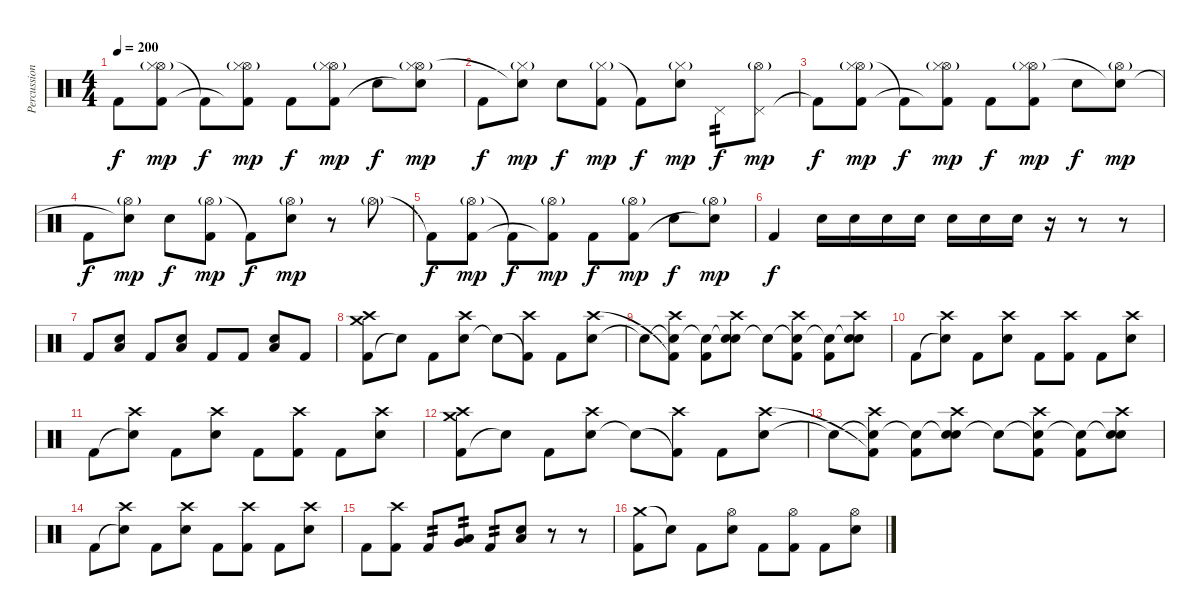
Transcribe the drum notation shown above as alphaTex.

\track ("Percussion" "Percussion") {instrument percussion}
\staff {score}
\articulation defaults
\ts (4 4)
\tempo 200
\clef neutral
\ks c "Kick (hit) 2"{t}.8{dy f}
("Hi-Hat (open)"{g} "Hi-Hat (closed)" "Kick (hit) 2").8{dy mp} "Kick (hit) 2"{t}.8{dy f} ("Hi-Hat (open)"{g} "Hi-Hat (closed)"{g} "Kick (hit) 2"{t}).8{dy mp} "Kick (hit) 2".8{dy f} ("Hi-Hat (open)"{g} "Hi-Hat (closed)"{g} "Kick (hit) 2").8{dy mp} "Snare (hit) 2".8{dy f} ("Hi-Hat (open)"{g} "Hi-Hat (closed)"{g} "Snare (hit)"{t}).8{dy mp} |
"Kick (hit) 2".8{dy f} ("Hi-Hat (closed)"{g} "Snare (hit)"{t}).8{dy mp} "Snare (hit) 2".8{dy f} ("Hi-Hat (closed)"{g} "Kick (hit) 2").8{dy mp} "Kick (hit) 2"{t}.8{dy f} ("Hi-Hat (closed)"{g} "Snare (hit) 2").8{dy mp} "Pedal Hi-Hat (hit)".8{tp 2 dy f} ("Pedal Hi-Hat (hit)" "Hi-Hat (open)"{g}).8{dy mp} |
"Kick (hit) 2"{t}.8{dy f} ("Hi-Hat (open)"{g} "Hi-Hat (closed)" "Kick (hit) 2").8{dy mp} "Kick (hit) 2"{t}.8{dy f} ("Hi-Hat (open)"{g} "Hi-Hat (closed)" "Kick (hit) 2"{t}).8{dy mp} "Kick (hit) 2".8{dy f} ("Hi-Hat (open)"{g} "Hi-Hat (closed)" "Kick (hit) 2").8{dy mp} "Snare (hit) 2".8{dy f} ("Hi-Hat (open)"{g} "Snare (hit)"{t}).8{dy mp} |
"Kick (hit) 2".8{dy f} ("Hi-Hat (open)"{g} "Snare (hit)"{t}).8{dy mp} "Snare (hit) 2".8{dy f} ("Hi-Hat (open)"{g} "Kick (hit) 2").8{dy mp} "Kick (hit) 2"{t}.8{dy f} ("Hi-Hat (open)"{g} "Snare (hit) 2").8{dy mp} r.8 "Hi-Hat (open)"{g}.8 |
"Kick (hit) 2"{t}.8{dy f} ("Hi-Hat (open)"{g} "Kick (hit) 2").8{dy mp} "Kick (hit) 2"{t}.8{dy f} ("Hi-Hat (open)"{g} "Kick (hit) 2"{t}).8{dy mp} "Kick (hit) 2".8{dy f} ("Hi-Hat (open)"{g} "Kick (hit) 2").8{dy mp} "Snare (hit) 2".8{dy f} ("Hi-Hat (open)"{g} "Snare (hit)"{t}).8{dy mp} |
"Kick (hit) 2".4{dy f} "Snare (hit) 2".16 "Snare (hit) 2".16 "Snare (hit) 2".16 "Snare (hit) 2".16 "Snare (hit) 2".16 "Snare (hit) 2".16 "Snare (hit) 2".16 r.16 r.8 r.8 |
"Kick (hit) 2".8 ("Snare (hit) 2" "Low Floor Tom (hit)").8 "Kick (hit) 2".8 ("Snare (hit) 2" "Low Floor Tom (hit)").8 "Kick (hit) 2".8 "Kick (hit) 2".8 ("Snare (hit) 2" "Low Floor Tom (hit)").8 "Kick (hit) 2".8 |
("Kick (hit) 2" "Crash high (hit)" "Crash medium (hit)").8 "Snare (hit)"{t}.8 "Kick (hit) 2".8 ("Snare (hit) 2" "Crash high (hit)").8 "Snare (hit)"{t}.8 ("Kick (hit) 2"{t} "Crash high (hit)").8 "Kick (hit) 2".8 ("Snare (hit) 2" "Crash high (hit)").8 |
"Snare (hit)"{t}.8 ("Snare (hit)"{t} "Kick (hit) 2"{t} "Crash high (hit)").8 ("Snare (hit)"{t} "Kick (hit) 2").8 ("Snare (hit)"{t} "Snare (hit) 2" "Crash high (hit)").8 "Snare (hit)"{t}.8 ("Snare (hit)"{t} "Kick (hit) 2" "Crash high (hit)").8 ("Snare (hit)"{t} "Kick (hit) 2").8 ("Snare (hit)"{t} "Snare (hit) 2" "Crash high (hit)").8 |
"Kick (hit) 2".8 ("Snare (hit)"{t} "Crash high (hit)").8 "Kick (hit) 2".8 ("Snare (hit) 2" "Crash high (hit)").8 "Kick (hit) 2".8 ("Kick (hit) 2" "Crash high (hit)").8 "Kick (hit) 2".8 ("Snare (hit) 2" "Crash high (hit)").8 |
"Kick (hit) 2".8 ("Snare (hit)"{t} "Crash high (hit)").8 "Kick (hit) 2".8 ("Snare (hit) 2" "Crash high (hit)").8 "Kick (hit) 2".8 ("Kick (hit) 2" "Crash high (hit)").8 "Kick (hit) 2".8 ("Snare (hit) 2" "Crash high (hit)").8 |
("Kick (hit) 2" "Crash high (hit)" "Crash medium (hit)").8 "Snare (hit)"{t}.8 "Kick (hit) 2".8 ("Snare (hit) 2" "Crash high (hit)").8 "Snare (hit)"{t}.8 ("Kick (hit) 2"{t} "Crash high (hit)").8 "Kick (hit) 2".8 ("Snare (hit) 2" "Crash high (hit)").8 |
"Snare (hit)"{t}.8 ("Snare (hit)"{t} "Kick (hit) 2"{t} "Crash high (hit)").8 ("Snare (hit)"{t} "Kick (hit) 2").8 ("Snare (hit)"{t} "Snare (hit) 2" "Crash high (hit)").8 "Snare (hit)"{t}.8 ("Snare (hit)"{t} "Kick (hit) 2" "Crash high (hit)").8 ("Snare (hit)"{t} "Kick (hit) 2").8 ("Snare (hit)"{t} "Snare (hit) 2" "Crash high (hit)").8 |
"Kick (hit) 2".8 ("Snare (hit)"{t} "Crash high (hit)").8 "Kick (hit) 2".8 ("Snare (hit) 2" "Crash high (hit)").8 "Kick (hit) 2".8 ("Kick (hit) 2" "Crash high (hit)").8 "Kick (hit) 2".8 ("Snare (hit) 2" "Crash high (hit)").8 |
"Kick (hit) 2".8 ("Kick (hit) 2" "Crash high (hit)").8 "Kick (hit) 2".8{tp 2} ("Low Tom (hit)" "Very Low Tom (hit)").8{tp 2} "Kick (hit) 2".8{tp 2} ("Snare (hit) 2" "Low Floor Tom (hit)").8 r.8 r.8 |
("Crash medium (hit)" "Kick (hit) 2").8 "Snare (hit)"{t}.8 "Kick (hit) 2".8 ("Hi-Hat (open)" "Snare (hit) 2").8 "Kick (hit) 2".8 ("Hi-Hat (open)" "Kick (hit) 2").8 "Kick (hit) 2".8 ("Hi-Hat (open)" "Snare (hit) 2").8
